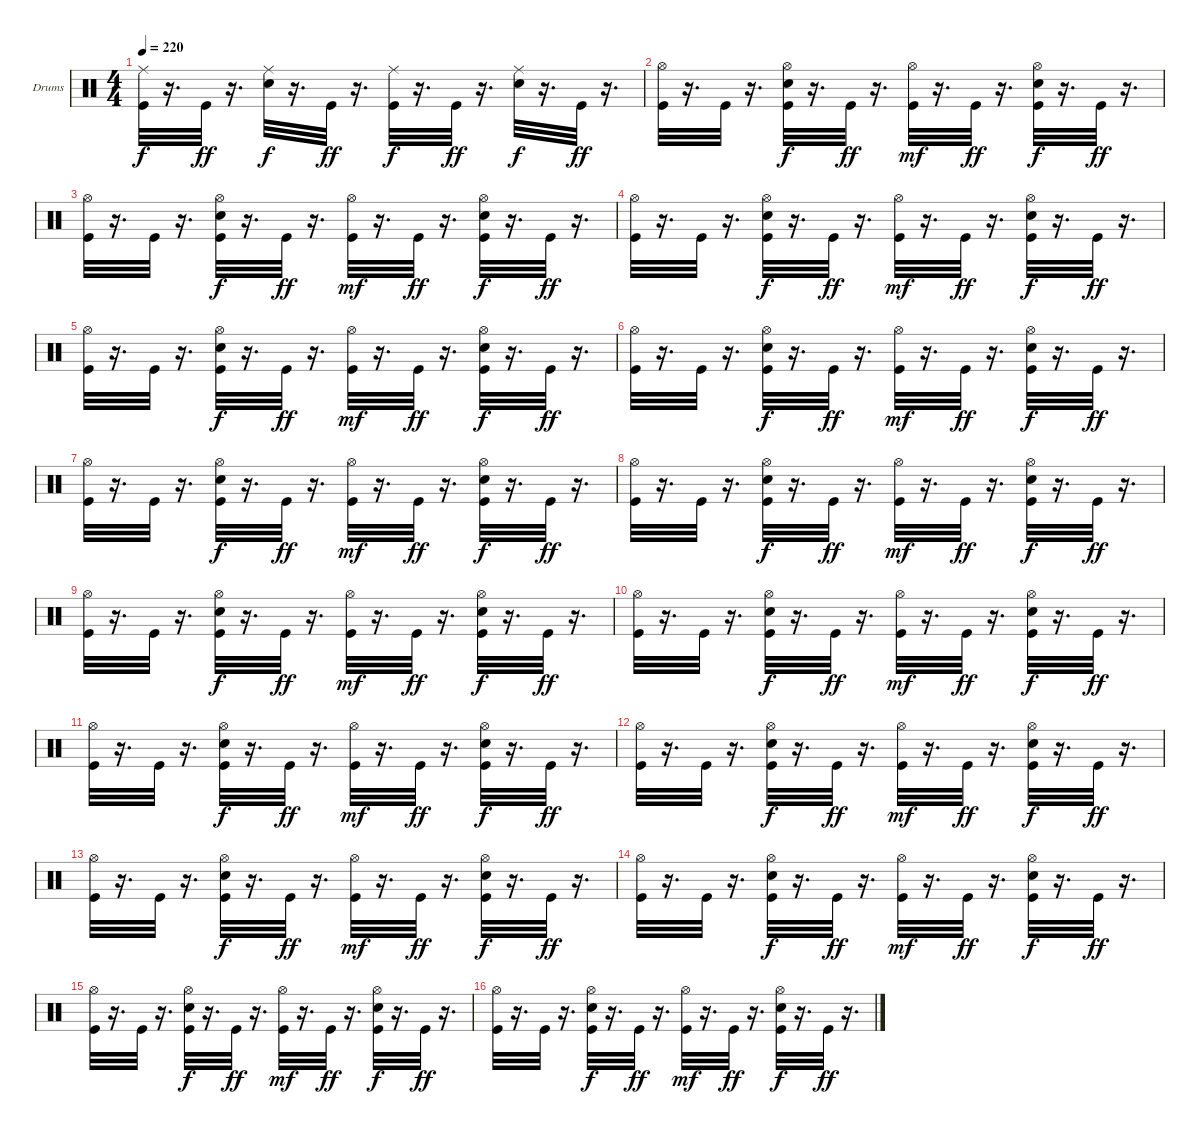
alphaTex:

\defaultSystemsLayout 4
\bracketExtendMode groupsimilarinstruments
\firstSystemTrackNameOrientation horizontal
\otherSystemsTrackNameOrientation horizontal
\track ("Дмитрий Кривенков" "Drums") {instrument percussion}
\staff {score}
\articulation defaults
\ts (4 4)
\tempo 220
\clef neutral
\ks c
("Ride (middle)" "Kick (hit)").32{dy f} r.16{d} "Kick (hit)".32{dy ff} r.16{d} ("Ride (middle)" "Snare (hit) 2").32{dy f} r.16{d} "Kick (hit)".32{dy ff} r.16{d} ("Ride (middle)" "Kick (hit)").32{dy f} r.16{d} "Kick (hit)".32{dy ff} r.16{d} ("Ride (middle)" "Snare (hit) 2").32{dy f} r.16{d} "Kick (hit)".32{dy ff} r.16{d} |
("Kick (hit)" "Hi-Hat (open)").32 r.16{d} "Kick (hit)".32 r.16{d} ("Snare (hit) 2" "Hi-Hat (open)" "Kick (hit)").32{dy f} r.16{d} "Kick (hit)".32{dy ff} r.16{d} ("Hi-Hat (open)" "Kick (hit)").32{dy mf} r.16{d} "Kick (hit)".32{dy ff} r.16{d} ("Snare (hit) 2" "Hi-Hat (open)" "Kick (hit)").32{dy f} r.16{d} "Kick (hit)".32{dy ff} r.16{d} |
("Kick (hit)" "Hi-Hat (open)").32 r.16{d} "Kick (hit)".32 r.16{d} ("Snare (hit) 2" "Hi-Hat (open)" "Kick (hit)").32{dy f} r.16{d} "Kick (hit)".32{dy ff} r.16{d} ("Hi-Hat (open)" "Kick (hit)").32{dy mf} r.16{d} "Kick (hit)".32{dy ff} r.16{d} ("Snare (hit) 2" "Hi-Hat (open)" "Kick (hit)").32{dy f} r.16{d} "Kick (hit)".32{dy ff} r.16{d} |
("Kick (hit)" "Hi-Hat (open)").32 r.16{d} "Kick (hit)".32 r.16{d} ("Snare (hit) 2" "Hi-Hat (open)" "Kick (hit)").32{dy f} r.16{d} "Kick (hit)".32{dy ff} r.16{d} ("Hi-Hat (open)" "Kick (hit)").32{dy mf} r.16{d} "Kick (hit)".32{dy ff} r.16{d} ("Snare (hit) 2" "Hi-Hat (open)" "Kick (hit)").32{dy f} r.16{d} "Kick (hit)".32{dy ff} r.16{d} |
("Kick (hit)" "Hi-Hat (open)").32 r.16{d} "Kick (hit)".32 r.16{d} ("Snare (hit) 2" "Hi-Hat (open)" "Kick (hit)").32{dy f} r.16{d} "Kick (hit)".32{dy ff} r.16{d} ("Hi-Hat (open)" "Kick (hit)").32{dy mf} r.16{d} "Kick (hit)".32{dy ff} r.16{d} ("Snare (hit) 2" "Hi-Hat (open)" "Kick (hit)").32{dy f} r.16{d} "Kick (hit)".32{dy ff} r.16{d} |
("Kick (hit)" "Hi-Hat (open)").32 r.16{d} "Kick (hit)".32 r.16{d} ("Snare (hit) 2" "Hi-Hat (open)" "Kick (hit)").32{dy f} r.16{d} "Kick (hit)".32{dy ff} r.16{d} ("Hi-Hat (open)" "Kick (hit)").32{dy mf} r.16{d} "Kick (hit)".32{dy ff} r.16{d} ("Snare (hit) 2" "Hi-Hat (open)" "Kick (hit)").32{dy f} r.16{d} "Kick (hit)".32{dy ff} r.16{d} |
("Kick (hit)" "Hi-Hat (open)").32 r.16{d} "Kick (hit)".32 r.16{d} ("Snare (hit) 2" "Hi-Hat (open)" "Kick (hit)").32{dy f} r.16{d} "Kick (hit)".32{dy ff} r.16{d} ("Hi-Hat (open)" "Kick (hit)").32{dy mf} r.16{d} "Kick (hit)".32{dy ff} r.16{d} ("Snare (hit) 2" "Hi-Hat (open)" "Kick (hit)").32{dy f} r.16{d} "Kick (hit)".32{dy ff} r.16{d} |
("Kick (hit)" "Hi-Hat (open)").32 r.16{d} "Kick (hit)".32 r.16{d} ("Snare (hit) 2" "Hi-Hat (open)" "Kick (hit)").32{dy f} r.16{d} "Kick (hit)".32{dy ff} r.16{d} ("Hi-Hat (open)" "Kick (hit)").32{dy mf} r.16{d} "Kick (hit)".32{dy ff} r.16{d} ("Snare (hit) 2" "Hi-Hat (open)" "Kick (hit)").32{dy f} r.16{d} "Kick (hit)".32{dy ff} r.16{d} |
("Kick (hit)" "Hi-Hat (open)").32 r.16{d} "Kick (hit)".32 r.16{d} ("Snare (hit) 2" "Hi-Hat (open)" "Kick (hit)").32{dy f} r.16{d} "Kick (hit)".32{dy ff} r.16{d} ("Hi-Hat (open)" "Kick (hit)").32{dy mf} r.16{d} "Kick (hit)".32{dy ff} r.16{d} ("Snare (hit) 2" "Hi-Hat (open)" "Kick (hit)").32{dy f} r.16{d} "Kick (hit)".32{dy ff} r.16{d} |
("Kick (hit)" "Hi-Hat (open)").32 r.16{d} "Kick (hit)".32 r.16{d} ("Snare (hit) 2" "Hi-Hat (open)" "Kick (hit)").32{dy f} r.16{d} "Kick (hit)".32{dy ff} r.16{d} ("Hi-Hat (open)" "Kick (hit)").32{dy mf} r.16{d} "Kick (hit)".32{dy ff} r.16{d} ("Snare (hit) 2" "Hi-Hat (open)" "Kick (hit)").32{dy f} r.16{d} "Kick (hit)".32{dy ff} r.16{d} |
("Kick (hit)" "Hi-Hat (open)").32 r.16{d} "Kick (hit)".32 r.16{d} ("Snare (hit) 2" "Hi-Hat (open)" "Kick (hit)").32{dy f} r.16{d} "Kick (hit)".32{dy ff} r.16{d} ("Hi-Hat (open)" "Kick (hit)").32{dy mf} r.16{d} "Kick (hit)".32{dy ff} r.16{d} ("Snare (hit) 2" "Hi-Hat (open)" "Kick (hit)").32{dy f} r.16{d} "Kick (hit)".32{dy ff} r.16{d} |
("Kick (hit)" "Hi-Hat (open)").32 r.16{d} "Kick (hit)".32 r.16{d} ("Snare (hit) 2" "Hi-Hat (open)" "Kick (hit)").32{dy f} r.16{d} "Kick (hit)".32{dy ff} r.16{d} ("Hi-Hat (open)" "Kick (hit)").32{dy mf} r.16{d} "Kick (hit)".32{dy ff} r.16{d} ("Snare (hit) 2" "Hi-Hat (open)" "Kick (hit)").32{dy f} r.16{d} "Kick (hit)".32{dy ff} r.16{d} |
("Kick (hit)" "Hi-Hat (open)").32 r.16{d} "Kick (hit)".32 r.16{d} ("Snare (hit) 2" "Hi-Hat (open)" "Kick (hit)").32{dy f} r.16{d} "Kick (hit)".32{dy ff} r.16{d} ("Hi-Hat (open)" "Kick (hit)").32{dy mf} r.16{d} "Kick (hit)".32{dy ff} r.16{d} ("Snare (hit) 2" "Hi-Hat (open)" "Kick (hit)").32{dy f} r.16{d} "Kick (hit)".32{dy ff} r.16{d} |
("Kick (hit)" "Hi-Hat (open)").32 r.16{d} "Kick (hit)".32 r.16{d} ("Snare (hit) 2" "Hi-Hat (open)" "Kick (hit)").32{dy f} r.16{d} "Kick (hit)".32{dy ff} r.16{d} ("Hi-Hat (open)" "Kick (hit)").32{dy mf} r.16{d} "Kick (hit)".32{dy ff} r.16{d} ("Snare (hit) 2" "Hi-Hat (open)" "Kick (hit)").32{dy f} r.16{d} "Kick (hit)".32{dy ff} r.16{d} |
("Kick (hit)" "Hi-Hat (open)").32 r.16{d} "Kick (hit)".32 r.16{d} ("Snare (hit) 2" "Hi-Hat (open)" "Kick (hit)").32{dy f} r.16{d} "Kick (hit)".32{dy ff} r.16{d} ("Hi-Hat (open)" "Kick (hit)").32{dy mf} r.16{d} "Kick (hit)".32{dy ff} r.16{d} ("Snare (hit) 2" "Hi-Hat (open)" "Kick (hit)").32{dy f} r.16{d} "Kick (hit)".32{dy ff} r.16{d} |
("Kick (hit)" "Hi-Hat (open)").32 r.16{d} "Kick (hit)".32 r.16{d} ("Snare (hit) 2" "Hi-Hat (open)" "Kick (hit)").32{dy f} r.16{d} "Kick (hit)".32{dy ff} r.16{d} ("Hi-Hat (open)" "Kick (hit)").32{dy mf} r.16{d} "Kick (hit)".32{dy ff} r.16{d} ("Snare (hit) 2" "Hi-Hat (open)" "Kick (hit)").32{dy f} r.16{d} "Kick (hit)".32{dy ff} r.16{d}
